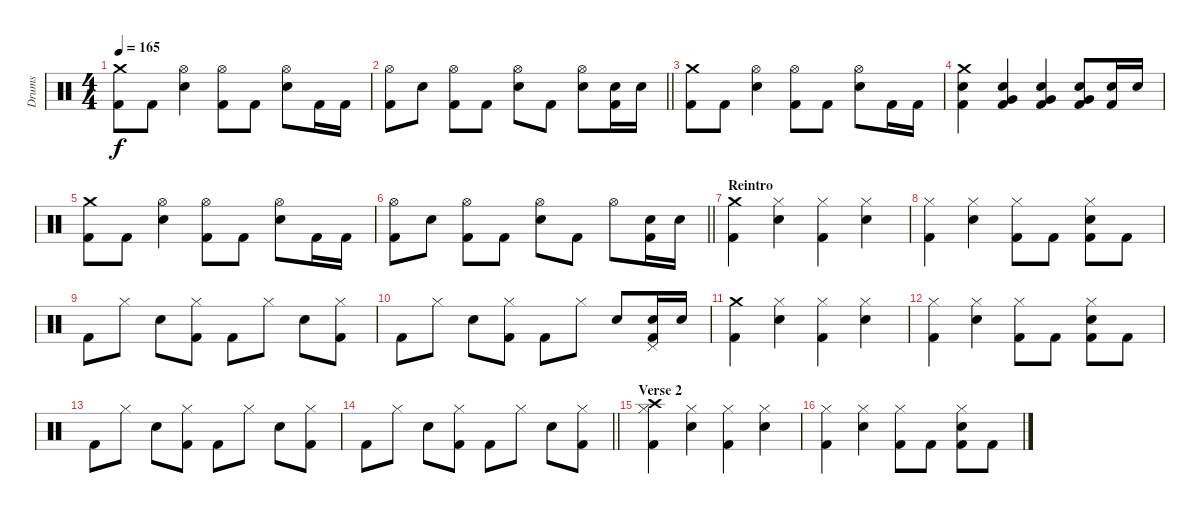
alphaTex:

\track ("Drums" "Drums") {instrument percussion}
\staff {score}
\articulation defaults
\ts (4 4)
\tempo 165
\clef neutral
\ks c
("Crash medium (hit)" "Kick (hit) 2").8{dy f} "Kick (hit) 2".8 ("Hi-Hat (open)" "Electric Snare (hit)").4 ("Hi-Hat (open)" "Kick (hit) 2").8 "Kick (hit) 2".8 ("Hi-Hat (open)" "Electric Snare (hit)").8 "Kick (hit) 2".16 "Kick (hit) 2".16 |
\barLineRight lightlight
("Hi-Hat (open)" "Kick (hit) 2").8 "Electric Snare (hit)".8 ("Hi-Hat (open)" "Kick (hit) 2").8 "Kick (hit) 2".8 ("Hi-Hat (open)" "Electric Snare (hit)").8 "Kick (hit) 2".8 ("Hi-Hat (open)" "Electric Snare (hit)").8 ("Electric Snare (hit)" "Kick (hit) 2").16 "Electric Snare (hit)".16 |
("Crash medium (hit)" "Kick (hit) 2").8 "Kick (hit) 2".8 ("Hi-Hat (open)" "Electric Snare (hit)").4 ("Hi-Hat (open)" "Kick (hit) 2").8 "Kick (hit) 2".8 ("Hi-Hat (open)" "Electric Snare (hit)").8 "Kick (hit) 2".16 "Kick (hit) 2".16 |
("Crash medium (hit)" "Electric Snare (hit)" "Kick (hit) 2").4 ("Very Low Tom (hit)" "Electric Snare (hit)" "Kick (hit) 2").4 ("Very Low Tom (hit)" "Electric Snare (hit)" "Kick (hit) 2").4 ("Very Low Tom (hit)" "Electric Snare (hit)" "Kick (hit) 2").8 ("Electric Snare (hit)" "Kick (hit) 2").16 "Electric Snare (hit)".16 |
("Crash medium (hit)" "Kick (hit) 2").8 "Kick (hit) 2".8 ("Hi-Hat (open)" "Electric Snare (hit)").4 ("Hi-Hat (open)" "Kick (hit) 2").8 "Kick (hit) 2".8 ("Hi-Hat (open)" "Electric Snare (hit)").8 "Kick (hit) 2".16 "Kick (hit) 2".16 |
\barLineRight lightlight
("Hi-Hat (open)" "Kick (hit) 2").8 "Electric Snare (hit)".8 ("Hi-Hat (open)" "Kick (hit) 2").8 "Kick (hit) 2".8 ("Hi-Hat (open)" "Electric Snare (hit)").8 "Kick (hit) 2".8 "Hi-Hat (open)".8 ("Electric Snare (hit)" "Kick (hit) 2").16 "Electric Snare (hit)".16 |
\section ("" "Reintro")
("Crash medium (hit)" "Kick (hit) 2").4 ("Hi-Hat (closed)" "Electric Snare (hit)").4 ("Hi-Hat (closed)" "Kick (hit) 2").4 ("Hi-Hat (closed)" "Electric Snare (hit)").4 |
("Hi-Hat (closed)" "Kick (hit) 2").4 ("Hi-Hat (closed)" "Electric Snare (hit)").4 ("Hi-Hat (closed)" "Kick (hit) 2").8 "Kick (hit) 2".8 ("Hi-Hat (closed)" "Electric Snare (hit)" "Kick (hit) 2").8 "Kick (hit) 2".8 |
"Kick (hit) 2".8 "Hi-Hat (closed)".8 "Electric Snare (hit)".8 ("Hi-Hat (closed)" "Kick (hit) 2").8 "Kick (hit) 2".8 "Hi-Hat (closed)".8 "Electric Snare (hit)".8 ("Hi-Hat (closed)" "Kick (hit) 2").8 |
"Kick (hit) 2".8 "Hi-Hat (closed)".8 "Electric Snare (hit)".8 ("Hi-Hat (closed)" "Kick (hit) 2").8 "Kick (hit) 2".8 "Hi-Hat (closed)".8 "Electric Snare (hit)".8 ("Pedal Hi-Hat (hit)" "Electric Snare (hit)" "Kick (hit) 2").16 "Electric Snare (hit)".16 |
("Crash medium (hit)" "Kick (hit) 2").4 ("Hi-Hat (closed)" "Electric Snare (hit)").4 ("Hi-Hat (closed)" "Kick (hit) 2").4 ("Hi-Hat (closed)" "Electric Snare (hit)").4 |
("Hi-Hat (closed)" "Kick (hit) 2").4 ("Hi-Hat (closed)" "Electric Snare (hit)").4 ("Hi-Hat (closed)" "Kick (hit) 2").8 "Kick (hit) 2".8 ("Hi-Hat (closed)" "Electric Snare (hit)" "Kick (hit) 2").8 "Kick (hit) 2".8 |
"Kick (hit) 2".8 "Hi-Hat (closed)".8 "Electric Snare (hit)".8 ("Hi-Hat (closed)" "Kick (hit) 2").8 "Kick (hit) 2".8 "Hi-Hat (closed)".8 "Electric Snare (hit)".8 ("Hi-Hat (closed)" "Kick (hit) 2").8 |
\barLineRight lightlight "Kick (hit) 2".8 "Hi-Hat (closed)".8 "Electric Snare (hit)".8
("Hi-Hat (closed)" "Kick (hit) 2").8 "Kick (hit) 2".8 "Hi-Hat (closed)".8 "Electric Snare (hit)".8 ("Hi-Hat (closed)" "Kick (hit) 2").8 |
\section ("" "Verse 2")
("Hi-Hat (closed)" "Crash high (hit)" "Kick (hit) 2").4 ("Hi-Hat (closed)" "Electric Snare (hit)").4 ("Hi-Hat (closed)" "Kick (hit) 2").4 ("Hi-Hat (closed)" "Electric Snare (hit)").4 |
("Hi-Hat (closed)" "Kick (hit) 2").4 ("Hi-Hat (closed)" "Electric Snare (hit)").4 ("Hi-Hat (closed)" "Kick (hit) 2").8 "Kick (hit) 2".8 ("Hi-Hat (closed)" "Electric Snare (hit)" "Kick (hit) 2").8 "Kick (hit) 2".8
